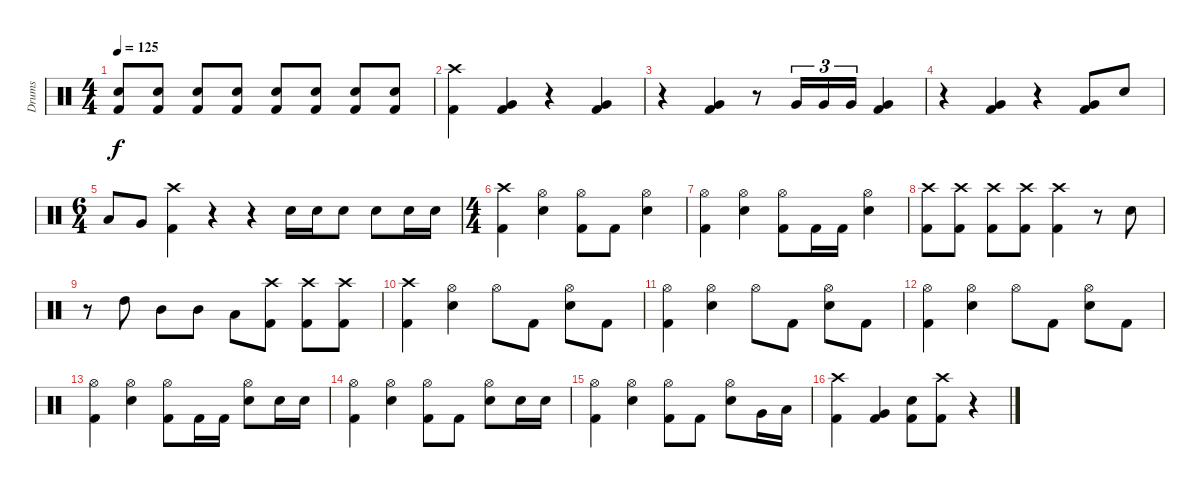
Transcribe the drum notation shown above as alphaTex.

\track ("Drums" "Drums") {instrument percussion}
\staff {score}
\articulation defaults
\ts (4 4)
\tempo 125
\clef neutral
\ks c
("Electric Snare (hit)" "Kick (hit) 2").8{dy f} ("Electric Snare (hit)" "Kick (hit) 2").8 ("Electric Snare (hit)" "Kick (hit) 2").8 ("Electric Snare (hit)" "Kick (hit) 2").8 ("Electric Snare (hit)" "Kick (hit) 2").8 ("Electric Snare (hit)" "Kick (hit) 2").8 ("Electric Snare (hit)" "Kick (hit) 2").8 ("Electric Snare (hit)" "Kick (hit) 2").8 |
("Crash high (hit)" "Kick (hit) 2").4 ("Very Low Tom (hit)" "Kick (hit) 2").4 r.4 ("Very Low Tom (hit)" "Kick (hit) 2").4 |
r.4 ("Very Low Tom (hit)" "Kick (hit) 2").4 r.8 "Very Low Tom (hit)".16{tu (3 2)} "Very Low Tom (hit)".16{tu (3 2)} "Very Low Tom (hit)".16{tu (3 2)} ("Very Low Tom (hit)" "Kick (hit) 2").4 |
r.4 ("Very Low Tom (hit)" "Kick (hit) 2").4 r.4 ("Very Low Tom (hit)" "Kick (hit) 2").8 "Electric Snare (hit)".8 |
\ts (6 4)
"Low Tom (hit)".8 "Very Low Tom (hit)".8 ("Crash high (hit)" "Kick (hit) 2").4 r.4 r.4 "Electric Snare (hit)".16 "Electric Snare (hit)".16 "Electric Snare (hit)".8 "Electric Snare (hit)".8 "Electric Snare (hit)".16 "Electric Snare (hit)".16 |
\ts (4 4)
("Crash high (hit)" "Kick (hit) 2").4 ("Hi-Hat (open)" "Electric Snare (hit)").4 ("Hi-Hat (open)" "Kick (hit) 2").8 "Kick (hit) 2".8 ("Hi-Hat (open)" "Electric Snare (hit)").4 |
("Hi-Hat (open)" "Kick (hit) 2").4 ("Hi-Hat (open)" "Electric Snare (hit)").4 ("Hi-Hat (open)" "Kick (hit) 2").8 "Kick (hit) 2".16 "Kick (hit) 2".16 ("Hi-Hat (open)" "Electric Snare (hit)").4 |
("Crash high (hit)" "Kick (hit) 2").8 ("Crash high (hit)" "Kick (hit) 2").8 ("Crash high (hit)" "Kick (hit) 2").8 ("Crash high (hit)" "Kick (hit) 2").8 ("Crash high (hit)" "Kick (hit) 2").4 r.8 "Electric Snare (hit)".8 |
r.8 "High Tom (hit)".8 "Mid Tom (hit)".8 "Mid Tom (hit)".8 "Low Tom (hit)".8 ("Crash high (hit)" "Kick (hit) 2").8 ("Crash high (hit)" "Kick (hit) 2").8 ("Crash high (hit)" "Kick (hit) 2").8 |
("Crash high (hit)" "Kick (hit) 2").4 ("Hi-Hat (open)" "Electric Snare (hit)").4 "Hi-Hat (open)".8 "Kick (hit) 2".8 ("Hi-Hat (open)" "Electric Snare (hit)").8 "Kick (hit) 2".8 |
("Hi-Hat (open)" "Kick (hit) 2").4 ("Hi-Hat (open)" "Electric Snare (hit)").4 "Hi-Hat (open)".8 "Kick (hit) 2".8 ("Hi-Hat (open)" "Electric Snare (hit)").8 "Kick (hit) 2".8 |
("Hi-Hat (open)" "Kick (hit) 2").4 ("Hi-Hat (open)" "Electric Snare (hit)").4 "Hi-Hat (open)".8 "Kick (hit) 2".8 ("Hi-Hat (open)" "Electric Snare (hit)").8 "Kick (hit) 2".8 |
("Hi-Hat (open)" "Kick (hit) 2").4 ("Hi-Hat (open)" "Electric Snare (hit)").4 ("Hi-Hat (open)" "Kick (hit) 2").8 "Kick (hit) 2".16 "Kick (hit) 2".16 ("Hi-Hat (open)" "Electric Snare (hit)").8 "Electric Snare (hit)".16 "Electric Snare (hit)".16 |
("Hi-Hat (open)" "Kick (hit) 2").4 ("Hi-Hat (open)" "Electric Snare (hit)").4 ("Hi-Hat (open)" "Kick (hit) 2").8 "Kick (hit) 2".8 ("Hi-Hat (open)" "Electric Snare (hit)").8 "Electric Snare (hit)".16 "Electric Snare (hit)".16 |
("Hi-Hat (open)" "Kick (hit) 2").4 ("Hi-Hat (open)" "Electric Snare (hit)").4 ("Hi-Hat (open)" "Kick (hit) 2").8 "Kick (hit) 2".8 ("Hi-Hat (open)" "Electric Snare (hit)").8 "Very Low Tom (hit)".16 "Low Floor Tom (hit)".16 |
("Crash high (hit)" "Kick (hit) 2").4 ("Very Low Tom (hit)" "Kick (hit) 2").4 ("Electric Snare (hit)" "Kick (hit) 2").8 ("Crash high (hit)" "Kick (hit) 2").8 r.4
